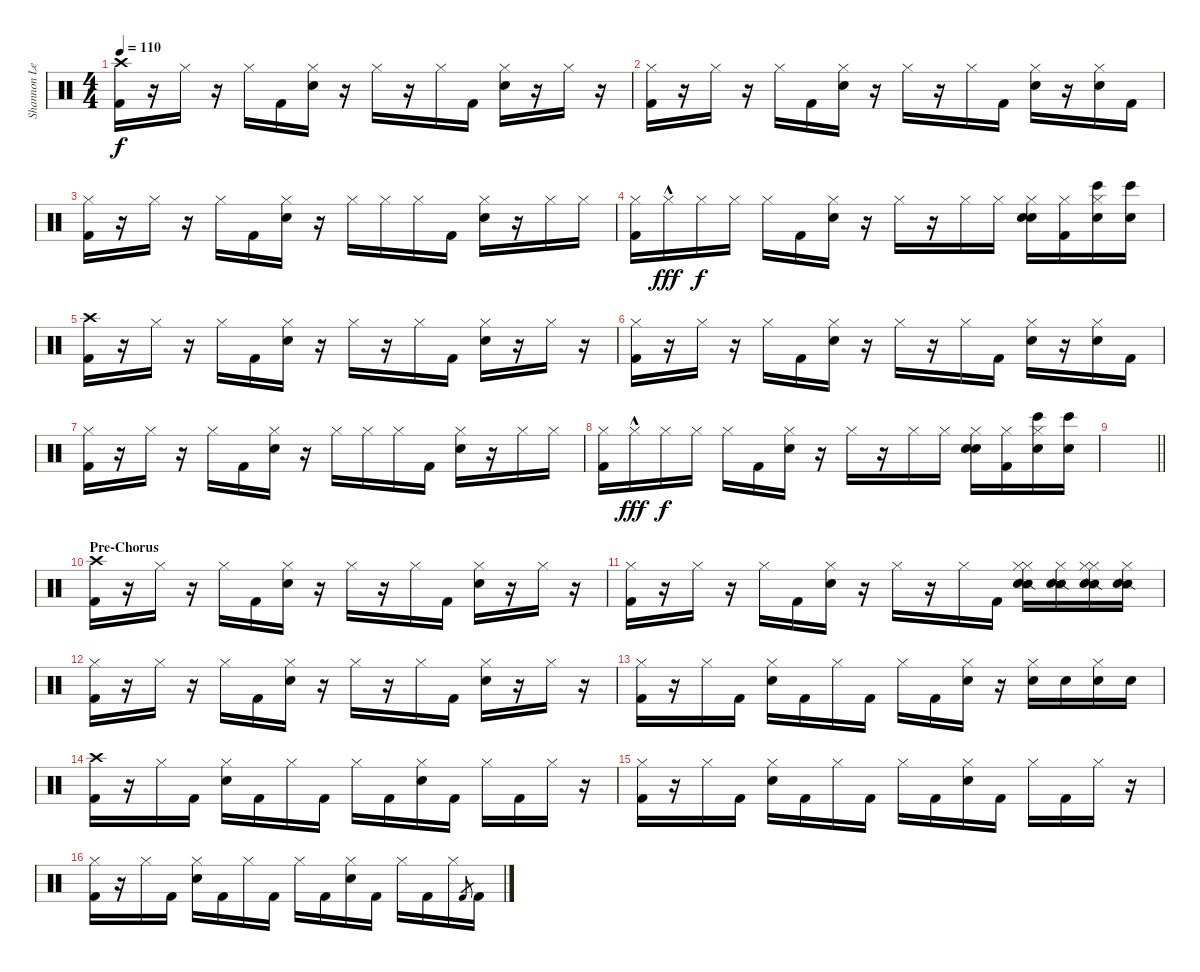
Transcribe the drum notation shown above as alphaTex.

\track ("Shannon Leto [Drums]" "Shannon Le") {instrument percussion}
\staff {score}
\articulation defaults
\ts (4 4)
\tempo 110
\clef neutral
\ks c
("Crash high (hit)" "Kick (hit) 2").16{dy f} r.16 "Hi-Hat (closed)".16 r.16 "Hi-Hat (closed)".16 "Kick (hit) 2".16 ("Hi-Hat (closed)" "Electric Snare (hit)").16 r.16 "Hi-Hat (closed)".16 r.16 "Hi-Hat (closed)".16 "Kick (hit) 2".16 ("Hi-Hat (closed)" "Electric Snare (hit)").16 r.16 "Hi-Hat (closed)".16 r.16 |
("Hi-Hat (closed)" "Kick (hit) 2").16 r.16 "Hi-Hat (closed)".16 r.16 "Hi-Hat (closed)".16 "Kick (hit) 2".16 ("Hi-Hat (closed)" "Electric Snare (hit)").16 r.16 "Hi-Hat (closed)".16 r.16 "Hi-Hat (closed)".16 "Kick (hit) 2".16 ("Hi-Hat (closed)" "Electric Snare (hit)").16 r.16 ("Hi-Hat (closed)" "Electric Snare (hit)").16 "Kick (hit) 2".16 |
("Hi-Hat (closed)" "Kick (hit) 2").16 r.16 "Hi-Hat (closed)".16 r.16 "Hi-Hat (closed)".16 "Kick (hit) 2".16 ("Hi-Hat (closed)" "Electric Snare (hit)").16 r.16 "Hi-Hat (closed)".16 "Hi-Hat (closed)".16 "Hi-Hat (closed)".16 "Kick (hit) 2".16 ("Hi-Hat (closed)" "Electric Snare (hit)").16 r.16 "Hi-Hat (closed)".16 "Hi-Hat (closed)".16 |
("Hi-Hat (closed)" "Kick (hit) 2").16 "Hi-Hat (closed)"{hac}.16{dy fff} "Hi-Hat (closed)".16{dy f} "Hi-Hat (closed)".16 "Hi-Hat (closed)".16 "Kick (hit) 2".16 ("Hi-Hat (closed)" "Electric Snare (hit)").16 r.16 "Hi-Hat (closed)".16 r.16 "Hi-Hat (closed)".16 "Hi-Hat (closed)".16 ("Hi-Hat (closed)" "Hand Clap (hit)" "Electric Snare (hit)").16 ("Hi-Hat (closed)" "Kick (hit) 2").16 ("Hi-Hat (closed)" "Hand Clap (hit)" "Bongo High (hit)").16 ("Hand Clap (hit)" "Bongo High (hit)").16 |
("Crash high (hit)" "Kick (hit) 2").16 r.16 "Hi-Hat (closed)".16 r.16 "Hi-Hat (closed)".16 "Kick (hit) 2".16 ("Hi-Hat (closed)" "Electric Snare (hit)").16 r.16 "Hi-Hat (closed)".16 r.16 "Hi-Hat (closed)".16 "Kick (hit) 2".16 ("Hi-Hat (closed)" "Electric Snare (hit)").16 r.16 "Hi-Hat (closed)".16 r.16 |
("Hi-Hat (closed)" "Kick (hit) 2").16 r.16 "Hi-Hat (closed)".16 r.16 "Hi-Hat (closed)".16 "Kick (hit) 2".16 ("Hi-Hat (closed)" "Electric Snare (hit)").16 r.16 "Hi-Hat (closed)".16 r.16 "Hi-Hat (closed)".16 "Kick (hit) 2".16 ("Hi-Hat (closed)" "Electric Snare (hit)").16 r.16 ("Hi-Hat (closed)" "Electric Snare (hit)").16 "Kick (hit) 2".16 |
("Hi-Hat (closed)" "Kick (hit) 2").16 r.16 "Hi-Hat (closed)".16 r.16 "Hi-Hat (closed)".16 "Kick (hit) 2".16 ("Hi-Hat (closed)" "Electric Snare (hit)").16 r.16 "Hi-Hat (closed)".16 "Hi-Hat (closed)".16 "Hi-Hat (closed)".16 "Kick (hit) 2".16 ("Hi-Hat (closed)" "Electric Snare (hit)").16 r.16 "Hi-Hat (closed)".16 "Hi-Hat (closed)".16 |
("Hi-Hat (closed)" "Kick (hit) 2").16 "Hi-Hat (closed)"{hac}.16{dy fff} "Hi-Hat (closed)".16{dy f} "Hi-Hat (closed)".16 "Hi-Hat (closed)".16 "Kick (hit) 2".16 ("Hi-Hat (closed)" "Electric Snare (hit)").16 r.16 "Hi-Hat (closed)".16 r.16 "Hi-Hat (closed)".16 "Hi-Hat (closed)".16 ("Hi-Hat (closed)" "Hand Clap (hit)" "Electric Snare (hit)").16 ("Hi-Hat (closed)" "Kick (hit) 2").16 ("Hi-Hat (closed)" "Hand Clap (hit)" "Bongo High (hit)").16 ("Hand Clap (hit)" "Bongo High (hit)").16 |
\barLineRight lightlight
|
\section ("" "Pre-Chorus")
("Crash high (hit)" "Kick (hit) 2").16 r.16 "Hi-Hat (closed)".16 r.16 "Hi-Hat (closed)".16 "Kick (hit) 2".16 ("Hi-Hat (closed)" "Electric Snare (hit)").16 r.16 "Hi-Hat (closed)".16 r.16 "Hi-Hat (closed)".16 "Kick (hit) 2".16 ("Hi-Hat (closed)" "Electric Snare (hit)").16 r.16 "Hi-Hat (closed)".16 r.16 |
("Hi-Hat (closed)" "Kick (hit) 2").16 r.16 "Hi-Hat (closed)".16 r.16 "Hi-Hat (closed)".16 "Kick (hit) 2".16 ("Hi-Hat (closed)" "Electric Snare (hit)").16 r.16 "Hi-Hat (closed)".16 r.16 "Hi-Hat (closed)".16 "Kick (hit) 2".16 ("Hi-Hat (closed)" "Snare (side stick) 2" "Hi-Hat (closed)" "Snare (hit) 2").16 ("Snare (side stick) 2" "Hi-Hat (closed)" "Snare (hit) 2").16 ("Hi-Hat (closed)" "Snare (side stick) 2" "Hi-Hat (closed)" "Snare (hit) 2").16 ("Snare (side stick) 2" "Hi-Hat (closed)" "Snare (hit) 2").16 |
("Hi-Hat (closed)" "Kick (hit) 2").16 r.16 "Hi-Hat (closed)".16 r.16 "Hi-Hat (closed)".16 "Kick (hit) 2".16 ("Hi-Hat (closed)" "Electric Snare (hit)").16 r.16 "Hi-Hat (closed)".16 r.16 "Hi-Hat (closed)".16 "Kick (hit) 2".16 ("Hi-Hat (closed)" "Electric Snare (hit)").16 r.16 "Hi-Hat (closed)".16 r.16 |
("Hi-Hat (closed)" "Kick (hit) 2").16 r.16 "Hi-Hat (closed)".16 "Kick (hit) 2".16 ("Hi-Hat (closed)" "Electric Snare (hit)").16 "Kick (hit) 2".16 "Hi-Hat (closed)".16 "Kick (hit) 2".16 "Hi-Hat (closed)".16 "Kick (hit) 2".16 ("Hi-Hat (closed)" "Electric Snare (hit)").16 r.16 ("Hi-Hat (closed)" "Electric Snare (hit)").16 "Electric Snare (hit)".16 ("Hi-Hat (closed)" "Electric Snare (hit)").16 "Electric Snare (hit)".16 |
("Crash high (hit)" "Kick (hit) 2").16 r.16 "Hi-Hat (closed)".16 "Kick (hit) 2".16 ("Hi-Hat (closed)" "Electric Snare (hit)").16 "Kick (hit) 2".16 "Hi-Hat (closed)".16 "Kick (hit) 2".16 "Hi-Hat (closed)".16 "Kick (hit) 2".16 ("Hi-Hat (closed)" "Electric Snare (hit)").16 "Kick (hit) 2".16 "Hi-Hat (closed)".16 "Kick (hit) 2".16 "Hi-Hat (closed)".16 r.16 |
("Hi-Hat (closed)" "Kick (hit) 2").16 r.16 "Hi-Hat (closed)".16 "Kick (hit) 2".16 ("Hi-Hat (closed)" "Electric Snare (hit)").16 "Kick (hit) 2".16 "Hi-Hat (closed)".16 "Kick (hit) 2".16 "Hi-Hat (closed)".16 "Kick (hit) 2".16 ("Hi-Hat (closed)" "Electric Snare (hit)").16 "Kick (hit) 2".16 "Hi-Hat (closed)".16 "Kick (hit) 2".16 "Hi-Hat (closed)".16 r.16 |
("Hi-Hat (closed)" "Kick (hit) 2").16 r.16 "Hi-Hat (closed)".16 "Kick (hit) 2".16 ("Hi-Hat (closed)" "Electric Snare (hit)").16 "Kick (hit) 2".16 "Hi-Hat (closed)".16 "Kick (hit) 2".16 "Hi-Hat (closed)".16 "Kick (hit) 2".16 ("Hi-Hat (closed)" "Electric Snare (hit)").16 "Kick (hit) 2".16 "Hi-Hat (closed)".16 "Kick (hit) 2".16 "Hi-Hat (closed)".16 "Kick (hit) 2".8{gr} "Kick (hit) 2".16
